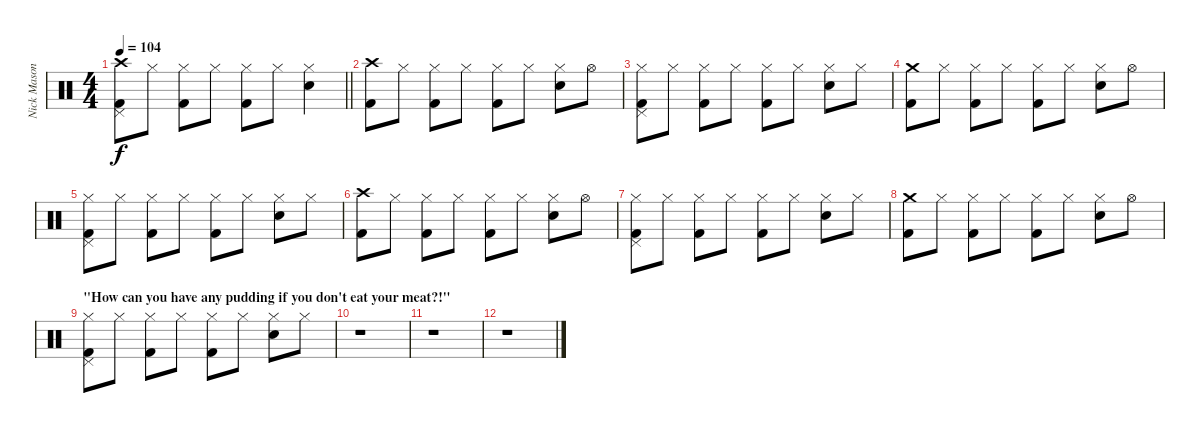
\track ("Nick Mason | Ludwig Drumkit | Drums" "Nick Mason") {instrument percussion}
\staff {score}
\articulation defaults
\ts (4 4)
\tempo 104
\clef neutral
\barLineRight lightlight
\ks c
("Crash high (hit)" "Kick (hit) 2" "Pedal Hi-Hat (hit)").8{dy f} "Hi-Hat (closed)".8 ("Hi-Hat (closed)" "Kick (hit) 2").8 "Hi-Hat (closed)".8 ("Hi-Hat (closed)" "Kick (hit) 2").8 "Hi-Hat (closed)".8 ("Hi-Hat (closed)" "Snare (hit) 2").4 |
("Crash high (hit)" "Kick (hit) 2").8 "Hi-Hat (closed)".8 ("Hi-Hat (closed)" "Kick (hit) 2").8 "Hi-Hat (closed)".8 ("Hi-Hat (closed)" "Kick (hit) 2").8 "Hi-Hat (closed)".8 ("Hi-Hat (closed)" "Snare (hit) 2").8 "Hi-Hat (open)".8 |
("Hi-Hat (closed)" "Kick (hit) 2" "Pedal Hi-Hat (hit)").8 "Hi-Hat (closed)".8 ("Hi-Hat (closed)" "Kick (hit) 2").8 "Hi-Hat (closed)".8 ("Hi-Hat (closed)" "Kick (hit) 2").8 "Hi-Hat (closed)".8 ("Hi-Hat (closed)" "Snare (hit) 2").8 "Hi-Hat (closed)".8 |
("Crash medium (hit)" "Kick (hit) 2").8 "Hi-Hat (closed)".8 ("Hi-Hat (closed)" "Kick (hit) 2").8 "Hi-Hat (closed)".8 ("Hi-Hat (closed)" "Kick (hit) 2").8 "Hi-Hat (closed)".8 ("Hi-Hat (closed)" "Snare (hit) 2").8 "Hi-Hat (open)".8 |
("Hi-Hat (closed)" "Kick (hit) 2" "Pedal Hi-Hat (hit)").8 "Hi-Hat (closed)".8 ("Hi-Hat (closed)" "Kick (hit) 2").8 "Hi-Hat (closed)".8 ("Hi-Hat (closed)" "Kick (hit) 2").8 "Hi-Hat (closed)".8 ("Hi-Hat (closed)" "Snare (hit) 2").8 "Hi-Hat (closed)".8 |
("Crash high (hit)" "Kick (hit) 2").8 "Hi-Hat (closed)".8 ("Hi-Hat (closed)" "Kick (hit) 2").8 "Hi-Hat (closed)".8 ("Hi-Hat (closed)" "Kick (hit) 2").8 "Hi-Hat (closed)".8 ("Hi-Hat (closed)" "Snare (hit) 2").8 "Hi-Hat (open)".8 |
("Hi-Hat (closed)" "Kick (hit) 2" "Pedal Hi-Hat (hit)").8 "Hi-Hat (closed)".8 ("Hi-Hat (closed)" "Kick (hit) 2").8 "Hi-Hat (closed)".8 ("Hi-Hat (closed)" "Kick (hit) 2").8 "Hi-Hat (closed)".8 ("Hi-Hat (closed)" "Snare (hit) 2").8 "Hi-Hat (closed)".8 |
("Crash medium (hit)" "Kick (hit) 2").8 "Hi-Hat (closed)".8 ("Hi-Hat (closed)" "Kick (hit) 2").8 "Hi-Hat (closed)".8 ("Hi-Hat (closed)" "Kick (hit) 2").8 "Hi-Hat (closed)".8 ("Hi-Hat (closed)" "Snare (hit) 2").8 "Hi-Hat (open)".8 |
\section ("" "\"How can you have any pudding if you don't eat your meat?!\"")
("Hi-Hat (closed)" "Kick (hit) 2" "Pedal Hi-Hat (hit)").8 "Hi-Hat (closed)".8 ("Hi-Hat (closed)" "Kick (hit) 2").8 "Hi-Hat (closed)".8 ("Hi-Hat (closed)" "Kick (hit) 2").8 "Hi-Hat (closed)".8 ("Hi-Hat (closed)" "Snare (hit) 2").8 "Hi-Hat (closed)".8 |
r.1 |
r.1 |
r.1
